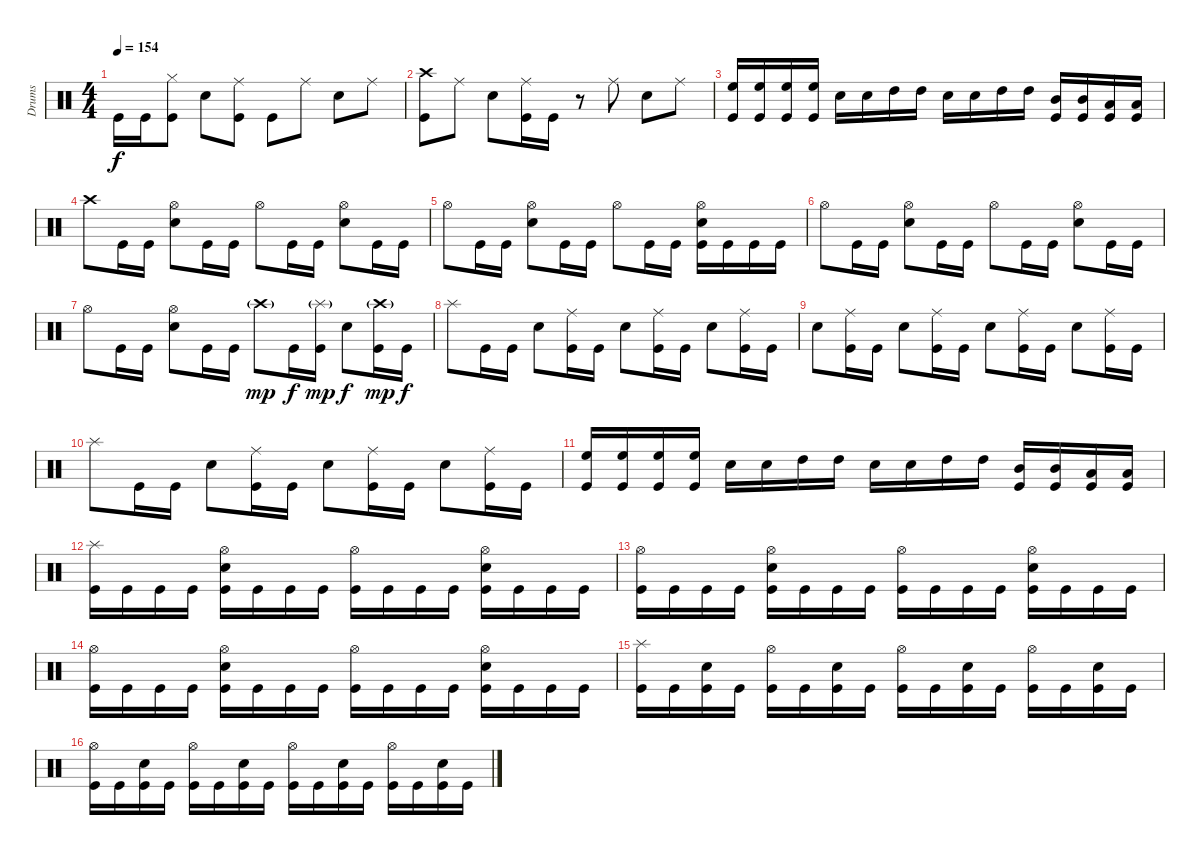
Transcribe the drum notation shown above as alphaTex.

\track ("Drums" "Drums") {instrument percussion}
\staff {score}
\articulation defaults
\ts (4 4)
\tempo 154
\clef neutral
\ks c "Kick (hit)".16{dy f} "Kick (hit)".16
("Hi-Hat (closed)" "Kick (hit)").8 "Snare (hit) 2".8 ("Ride (middle)" "Kick (hit)").8 "Kick (hit)".8 "Ride (middle)".8 "Snare (hit) 2".8 "Ride (middle)".8 |
("Crash high (hit)" "Kick (hit)").8 "Ride (middle)".8 "Snare (hit) 2".8 ("Ride (middle)" "Kick (hit)").16 "Kick (hit)".16 r.8 "Ride (middle)".8 "Snare (hit) 2".8 "Ride (middle)".8 |
("High Floor Tom (hit)" "Kick (hit)").16 ("High Floor Tom (hit)" "Kick (hit)").16 ("High Floor Tom (hit)" "Kick (hit)").16 ("High Floor Tom (hit)" "Kick (hit)").16 "Snare (hit) 2".16 "Snare (hit) 2".16 "High Tom (hit)".16 "High Tom (hit)".16 "Snare (hit) 2".16 "Snare (hit) 2".16 "High Tom (hit)".16 "High Tom (hit)".16 ("Mid Tom (hit)" "Kick (hit)").16 ("Mid Tom (hit)" "Kick (hit)").16 ("Low Tom (hit)" "Kick (hit)").16 ("Low Tom (hit)" "Kick (hit)").16 |
"Crash high (hit)".8 "Kick (hit)".16 "Kick (hit)".16 ("Hi-Hat (open)" "Snare (hit) 2").8 "Kick (hit)".16 "Kick (hit)".16 "Hi-Hat (open)".8 "Kick (hit)".16 "Kick (hit)".16 ("Hi-Hat (open)" "Snare (hit) 2").8 "Kick (hit)".16 "Kick (hit)".16 |
"Hi-Hat (open)".8 "Kick (hit)".16 "Kick (hit)".16 ("Hi-Hat (open)" "Snare (hit) 2").8 "Kick (hit)".16 "Kick (hit)".16 "Hi-Hat (open)".8 "Kick (hit)".16 "Kick (hit)".16 ("Hi-Hat (open)" "Snare (hit) 2" "Kick (hit)").16 "Kick (hit)".16 "Kick (hit)".16 "Kick (hit)".16 |
"Hi-Hat (open)".8 "Kick (hit)".16 "Kick (hit)".16 ("Hi-Hat (open)" "Snare (hit) 2").8 "Kick (hit)".16 "Kick (hit)".16 "Hi-Hat (open)".8 "Kick (hit)".16 "Kick (hit)".16 ("Hi-Hat (open)" "Snare (hit) 2").8 "Kick (hit)".16 "Kick (hit)".16 |
"Hi-Hat (open)".8 "Kick (hit)".16 "Kick (hit)".16 ("Hi-Hat (open)" "Snare (hit) 2").8 "Kick (hit)".16 "Kick (hit)".16 "Crash high (hit)"{g}.8{dy mp} "Kick (hit)".16{dy f} ("Splash (hit)"{g} "Kick (hit)").16{dy mp} "Snare (hit) 2".8{dy f} ("Crash high (hit)"{g} "Kick (hit)").16{dy mp} "Kick (hit)".16{dy f} |
"Splash (hit)".8 "Kick (hit)".16 "Kick (hit)".16 "Snare (hit) 2".8 ("Ride (middle)" "Kick (hit)").16 "Kick (hit)".16 "Snare (hit) 2".8 ("Ride (middle)" "Kick (hit)").16 "Kick (hit)".16 "Snare (hit) 2".8 ("Ride (middle)" "Kick (hit)").16 "Kick (hit)".16 |
"Snare (hit) 2".8 ("Ride (middle)" "Kick (hit)").16 "Kick (hit)".16 "Snare (hit) 2".8 ("Ride (middle)" "Kick (hit)").16 "Kick (hit)".16 "Snare (hit) 2".8 ("Ride (middle)" "Kick (hit)").16 "Kick (hit)".16 "Snare (hit) 2".8 ("Ride (middle)" "Kick (hit)").16 "Kick (hit)".16 |
"Splash (hit)".8 "Kick (hit)".16 "Kick (hit)".16 "Snare (hit) 2".8 ("Ride (middle)" "Kick (hit)").16 "Kick (hit)".16 "Snare (hit) 2".8 ("Ride (middle)" "Kick (hit)").16 "Kick (hit)".16 "Snare (hit) 2".8 ("Ride (middle)" "Kick (hit)").16 "Kick (hit)".16 |
("High Floor Tom (hit)" "Kick (hit)").16 ("High Floor Tom (hit)" "Kick (hit)").16 ("High Floor Tom (hit)" "Kick (hit)").16 ("High Floor Tom (hit)" "Kick (hit)").16 "Snare (hit) 2".16 "Snare (hit) 2".16 "High Tom (hit)".16 "High Tom (hit)".16 "Snare (hit) 2".16 "Snare (hit) 2".16 "High Tom (hit)".16 "High Tom (hit)".16 ("Mid Tom (hit)" "Kick (hit)").16 ("Mid Tom (hit)" "Kick (hit)").16 ("Low Tom (hit)" "Kick (hit)").16 ("Low Tom (hit)" "Kick (hit)").16 |
("Splash (hit)" "Kick (hit)").16 "Kick (hit)".16 "Kick (hit)".16 "Kick (hit)".16 ("Hi-Hat (open)" "Snare (hit) 2" "Kick (hit)").16 "Kick (hit)".16 "Kick (hit)".16 "Kick (hit)".16 ("Hi-Hat (open)" "Kick (hit)").16 "Kick (hit)".16 "Kick (hit)".16 "Kick (hit)".16 ("Hi-Hat (open)" "Snare (hit) 2" "Kick (hit)").16 "Kick (hit)".16 "Kick (hit)".16 "Kick (hit)".16 |
("Hi-Hat (open)" "Kick (hit)").16 "Kick (hit)".16 "Kick (hit)".16 "Kick (hit)".16 ("Hi-Hat (open)" "Snare (hit) 2" "Kick (hit)").16 "Kick (hit)".16 "Kick (hit)".16 "Kick (hit)".16 ("Hi-Hat (open)" "Kick (hit)").16 "Kick (hit)".16 "Kick (hit)".16 "Kick (hit)".16 ("Hi-Hat (open)" "Snare (hit) 2" "Kick (hit)").16 "Kick (hit)".16 "Kick (hit)".16 "Kick (hit)".16 |
("Hi-Hat (open)" "Kick (hit)").16 "Kick (hit)".16 "Kick (hit)".16 "Kick (hit)".16 ("Hi-Hat (open)" "Snare (hit) 2" "Kick (hit)").16 "Kick (hit)".16 "Kick (hit)".16 "Kick (hit)".16 ("Hi-Hat (open)" "Kick (hit)").16 "Kick (hit)".16 "Kick (hit)".16 "Kick (hit)".16 ("Hi-Hat (open)" "Snare (hit) 2" "Kick (hit)").16 "Kick (hit)".16 "Kick (hit)".16 "Kick (hit)".16 |
("Splash (hit)" "Kick (hit)").16 "Kick (hit)".16 ("Snare (hit) 2" "Kick (hit)").16 "Kick (hit)".16 ("Hi-Hat (open)" "Kick (hit)").16 "Kick (hit)".16 ("Snare (hit) 2" "Kick (hit)").16 "Kick (hit)".16 ("Hi-Hat (open)" "Kick (hit)").16 "Kick (hit)".16 ("Snare (hit) 2" "Kick (hit)").16 "Kick (hit)".16 ("Hi-Hat (open)" "Kick (hit)").16 "Kick (hit)".16 ("Snare (hit) 2" "Kick (hit)").16 "Kick (hit)".16 |
("Hi-Hat (open)" "Kick (hit)").16 "Kick (hit)".16 ("Snare (hit) 2" "Kick (hit)").16 "Kick (hit)".16 ("Hi-Hat (open)" "Kick (hit)").16 "Kick (hit)".16 ("Snare (hit) 2" "Kick (hit)").16 "Kick (hit)".16 ("Hi-Hat (open)" "Kick (hit)").16 "Kick (hit)".16 ("Snare (hit) 2" "Kick (hit)").16 "Kick (hit)".16 ("Hi-Hat (open)" "Kick (hit)").16 "Kick (hit)".16 ("Snare (hit) 2" "Kick (hit)").16 "Kick (hit)".16
